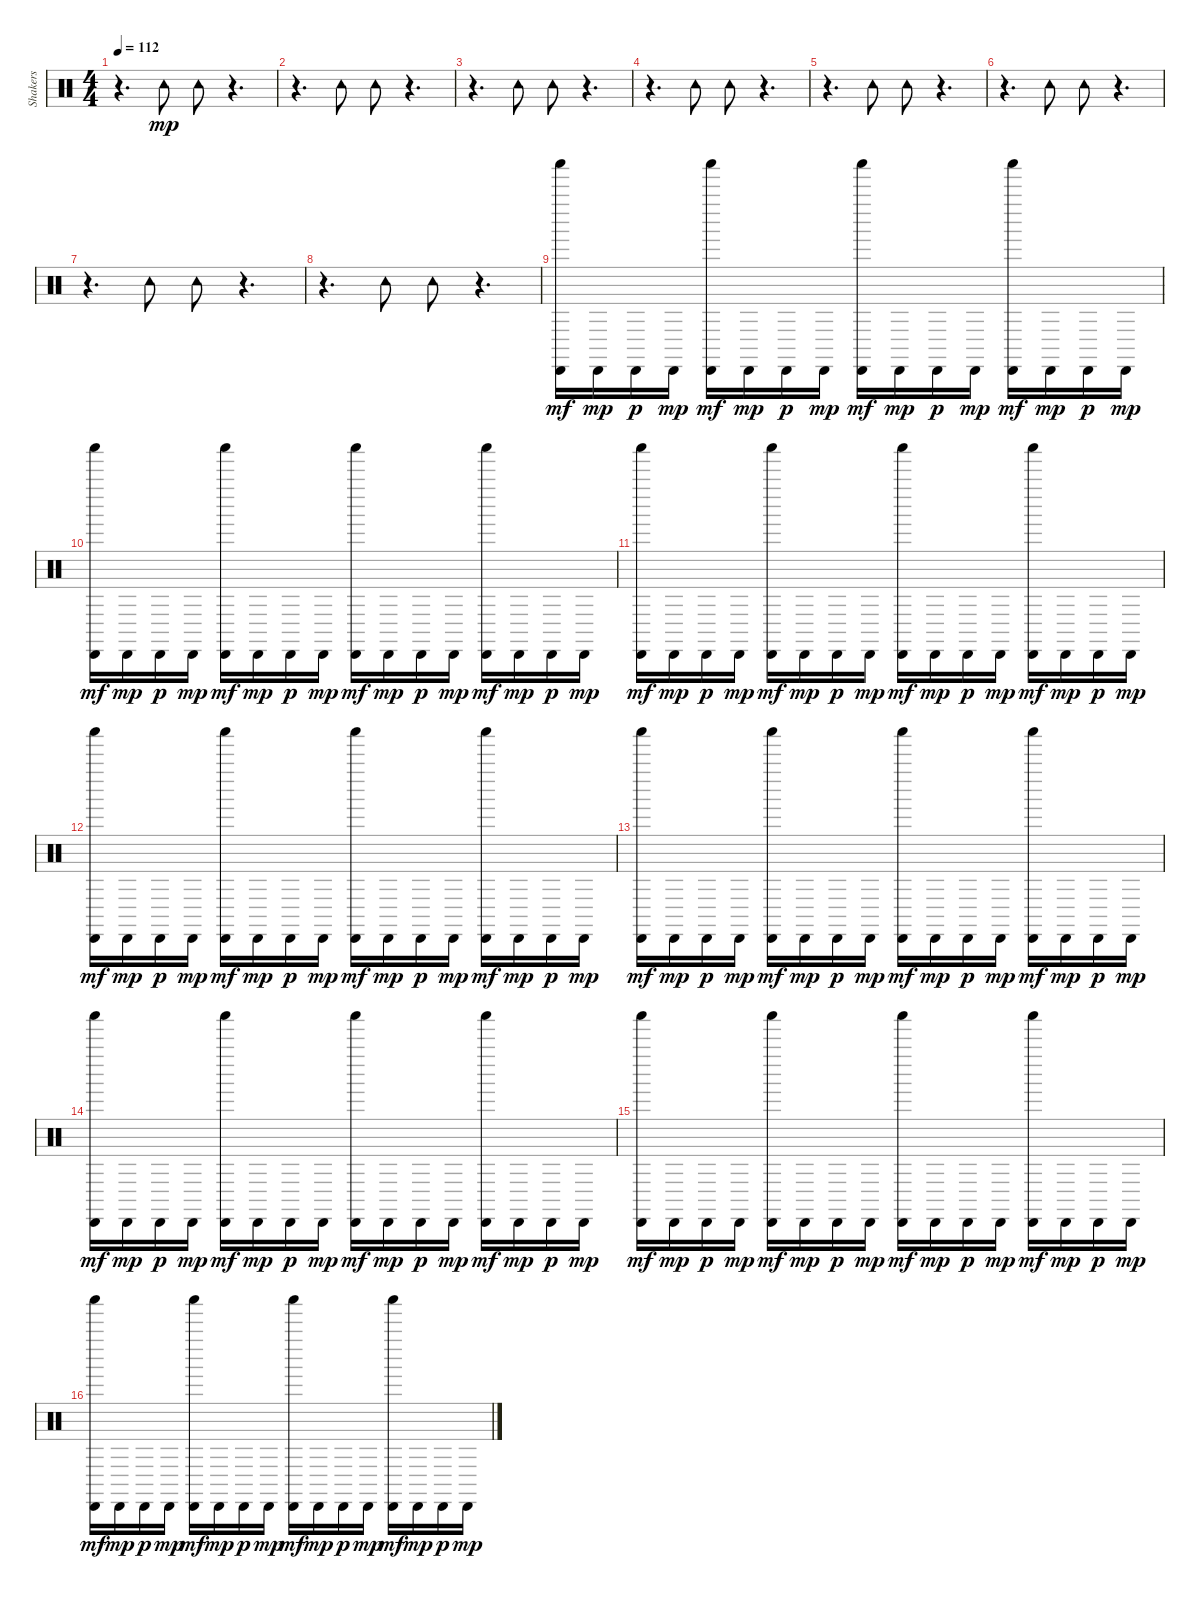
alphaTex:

\track ("Shakers" "Shakers") {instrument percussion}
\staff {score}
\articulation defaults
\ts (4 4)
\tempo 112
\clef neutral
\ks c
r.4{d dy mp} "Tambourine (hit)".8 "Tambourine (hit)".8 r.4{d} |
r.4{d} "Tambourine (hit)".8 "Tambourine (hit)".8 r.4{d} |
r.4{d} "Tambourine (hit)".8 "Tambourine (hit)".8 r.4{d} |
r.4{d} "Tambourine (hit)".8 "Tambourine (hit)".8 r.4{d} |
r.4{d} "Tambourine (hit)".8 "Tambourine (hit)".8 r.4{d} |
r.4{d} "Tambourine (hit)".8 "Tambourine (hit)".8 r.4{d} |
r.4{d} "Tambourine (hit)".8 "Tambourine (hit)".8 r.4{d} |
r.4{d} "Tambourine (hit)".8 "Tambourine (hit)".8 r.4{d} |
("Cabasa (hit)" "Shaker (hit)").16{dy mf} "Cabasa (hit)".16{dy mp} "Cabasa (hit)".16{dy p} "Cabasa (hit)".16{dy mp} ("Cabasa (hit)" "Shaker (hit)").16{dy mf} "Cabasa (hit)".16{dy mp} "Cabasa (hit)".16{dy p} "Cabasa (hit)".16{dy mp} ("Cabasa (hit)" "Shaker (hit)").16{dy mf} "Cabasa (hit)".16{dy mp} "Cabasa (hit)".16{dy p} "Cabasa (hit)".16{dy mp} ("Cabasa (hit)" "Shaker (hit)").16{dy mf} "Cabasa (hit)".16{dy mp} "Cabasa (hit)".16{dy p} "Cabasa (hit)".16{dy mp} |
("Cabasa (hit)" "Shaker (hit)").16{dy mf} "Cabasa (hit)".16{dy mp} "Cabasa (hit)".16{dy p} "Cabasa (hit)".16{dy mp} ("Cabasa (hit)" "Shaker (hit)").16{dy mf} "Cabasa (hit)".16{dy mp} "Cabasa (hit)".16{dy p} "Cabasa (hit)".16{dy mp} ("Cabasa (hit)" "Shaker (hit)").16{dy mf} "Cabasa (hit)".16{dy mp} "Cabasa (hit)".16{dy p} "Cabasa (hit)".16{dy mp} ("Cabasa (hit)" "Shaker (hit)").16{dy mf} "Cabasa (hit)".16{dy mp} "Cabasa (hit)".16{dy p} "Cabasa (hit)".16{dy mp} |
("Cabasa (hit)" "Shaker (hit)").16{dy mf} "Cabasa (hit)".16{dy mp} "Cabasa (hit)".16{dy p} "Cabasa (hit)".16{dy mp} ("Cabasa (hit)" "Shaker (hit)").16{dy mf} "Cabasa (hit)".16{dy mp} "Cabasa (hit)".16{dy p} "Cabasa (hit)".16{dy mp} ("Cabasa (hit)" "Shaker (hit)").16{dy mf} "Cabasa (hit)".16{dy mp} "Cabasa (hit)".16{dy p} "Cabasa (hit)".16{dy mp} ("Cabasa (hit)" "Shaker (hit)").16{dy mf} "Cabasa (hit)".16{dy mp} "Cabasa (hit)".16{dy p} "Cabasa (hit)".16{dy mp} |
("Cabasa (hit)" "Shaker (hit)").16{dy mf} "Cabasa (hit)".16{dy mp} "Cabasa (hit)".16{dy p} "Cabasa (hit)".16{dy mp} ("Cabasa (hit)" "Shaker (hit)").16{dy mf} "Cabasa (hit)".16{dy mp} "Cabasa (hit)".16{dy p} "Cabasa (hit)".16{dy mp} ("Cabasa (hit)" "Shaker (hit)").16{dy mf} "Cabasa (hit)".16{dy mp} "Cabasa (hit)".16{dy p} "Cabasa (hit)".16{dy mp} ("Cabasa (hit)" "Shaker (hit)").16{dy mf} "Cabasa (hit)".16{dy mp} "Cabasa (hit)".16{dy p} "Cabasa (hit)".16{dy mp} |
("Cabasa (hit)" "Shaker (hit)").16{dy mf} "Cabasa (hit)".16{dy mp} "Cabasa (hit)".16{dy p} "Cabasa (hit)".16{dy mp} ("Cabasa (hit)" "Shaker (hit)").16{dy mf} "Cabasa (hit)".16{dy mp} "Cabasa (hit)".16{dy p} "Cabasa (hit)".16{dy mp} ("Cabasa (hit)" "Shaker (hit)").16{dy mf} "Cabasa (hit)".16{dy mp} "Cabasa (hit)".16{dy p} "Cabasa (hit)".16{dy mp} ("Cabasa (hit)" "Shaker (hit)").16{dy mf} "Cabasa (hit)".16{dy mp} "Cabasa (hit)".16{dy p} "Cabasa (hit)".16{dy mp} |
("Cabasa (hit)" "Shaker (hit)").16{dy mf} "Cabasa (hit)".16{dy mp} "Cabasa (hit)".16{dy p} "Cabasa (hit)".16{dy mp} ("Cabasa (hit)" "Shaker (hit)").16{dy mf} "Cabasa (hit)".16{dy mp} "Cabasa (hit)".16{dy p} "Cabasa (hit)".16{dy mp} ("Cabasa (hit)" "Shaker (hit)").16{dy mf} "Cabasa (hit)".16{dy mp} "Cabasa (hit)".16{dy p} "Cabasa (hit)".16{dy mp} ("Cabasa (hit)" "Shaker (hit)").16{dy mf} "Cabasa (hit)".16{dy mp} "Cabasa (hit)".16{dy p} "Cabasa (hit)".16{dy mp} |
("Cabasa (hit)" "Shaker (hit)").16{dy mf} "Cabasa (hit)".16{dy mp} "Cabasa (hit)".16{dy p} "Cabasa (hit)".16{dy mp} ("Cabasa (hit)" "Shaker (hit)").16{dy mf} "Cabasa (hit)".16{dy mp} "Cabasa (hit)".16{dy p} "Cabasa (hit)".16{dy mp} ("Cabasa (hit)" "Shaker (hit)").16{dy mf} "Cabasa (hit)".16{dy mp} "Cabasa (hit)".16{dy p} "Cabasa (hit)".16{dy mp} ("Cabasa (hit)" "Shaker (hit)").16{dy mf} "Cabasa (hit)".16{dy mp} "Cabasa (hit)".16{dy p} "Cabasa (hit)".16{dy mp} |
("Cabasa (hit)" "Shaker (hit)").16{dy mf} "Cabasa (hit)".16{dy mp} "Cabasa (hit)".16{dy p} "Cabasa (hit)".16{dy mp} ("Cabasa (hit)" "Shaker (hit)").16{dy mf} "Cabasa (hit)".16{dy mp} "Cabasa (hit)".16{dy p} "Cabasa (hit)".16{dy mp} ("Cabasa (hit)" "Shaker (hit)").16{dy mf} "Cabasa (hit)".16{dy mp} "Cabasa (hit)".16{dy p} "Cabasa (hit)".16{dy mp} ("Cabasa (hit)" "Shaker (hit)").16{dy mf} "Cabasa (hit)".16{dy mp} "Cabasa (hit)".16{dy p} "Cabasa (hit)".16{dy mp}
